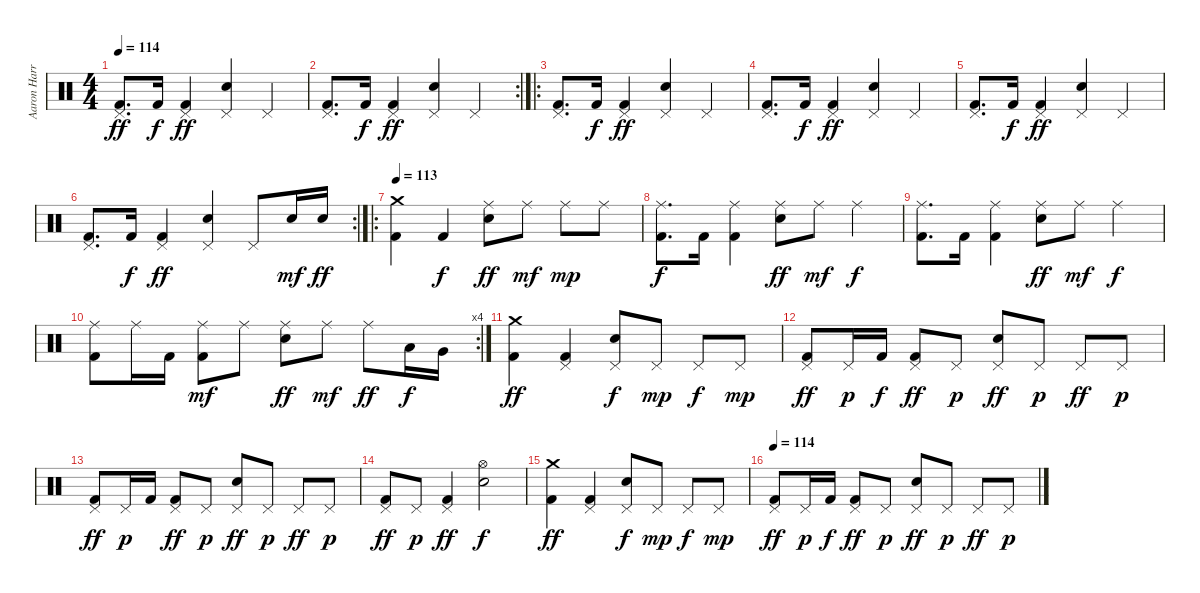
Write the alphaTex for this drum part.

\track ("Aaron Harris" "Aaron Harr") {instrument percussion}
\staff {score}
\articulation defaults
\ts (4 4)
\tempo 114
\clef neutral
\ks c
("Pedal Hi-Hat (hit)" "Kick (hit) 2").8{d dy ff} "Kick (hit) 2".16{dy f} ("Pedal Hi-Hat (hit)" "Kick (hit) 2").4{dy ff} ("Pedal Hi-Hat (hit)" "Electric Snare (hit)").4 "Pedal Hi-Hat (hit)".4 |
\rc 2
("Pedal Hi-Hat (hit)" "Kick (hit) 2").8{d} "Kick (hit) 2".16{dy f} ("Pedal Hi-Hat (hit)" "Kick (hit) 2").4{dy ff} ("Pedal Hi-Hat (hit)" "Electric Snare (hit)").4 "Pedal Hi-Hat (hit)".4 |
\ro
("Pedal Hi-Hat (hit)" "Kick (hit) 2").8{d} "Kick (hit) 2".16{dy f} ("Pedal Hi-Hat (hit)" "Kick (hit) 2").4{dy ff} ("Pedal Hi-Hat (hit)" "Electric Snare (hit)").4 "Pedal Hi-Hat (hit)".4 |
("Pedal Hi-Hat (hit)" "Kick (hit) 2").8{d} "Kick (hit) 2".16{dy f} ("Pedal Hi-Hat (hit)" "Kick (hit) 2").4{dy ff} ("Pedal Hi-Hat (hit)" "Electric Snare (hit)").4 "Pedal Hi-Hat (hit)".4 |
("Pedal Hi-Hat (hit)" "Kick (hit) 2").8{d} "Kick (hit) 2".16{dy f} ("Pedal Hi-Hat (hit)" "Kick (hit) 2").4{dy ff} ("Pedal Hi-Hat (hit)" "Electric Snare (hit)").4 "Pedal Hi-Hat (hit)".4 |
\rc 2
("Pedal Hi-Hat (hit)" "Kick (hit) 2").8{d} "Kick (hit) 2".16{dy f} ("Pedal Hi-Hat (hit)" "Kick (hit) 2").4{dy ff} ("Pedal Hi-Hat (hit)" "Electric Snare (hit)").4 "Pedal Hi-Hat (hit)".8 "Electric Snare (hit)".16{dy mf} "Electric Snare (hit)".16{dy ff} |
\ro
\tempo 113
("Crash medium (hit)" "Kick (hit) 2").4 "Kick (hit) 2".4{dy f} ("Ride (middle)" "Electric Snare (hit)").8{dy ff} "Ride (middle)".8{dy mf} "Ride (middle)".8{dy mp} "Ride (middle)".8 |
("Ride (middle)" "Kick (hit) 2").8{d dy f} "Kick (hit) 2".16 ("Ride (middle)" "Kick (hit) 2").4 ("Ride (middle)" "Electric Snare (hit)").8{dy ff} "Ride (middle)".8{dy mf} "Ride (middle)".4{dy f} |
("Ride (middle)" "Kick (hit) 2").8{d} "Kick (hit) 2".16 ("Ride (middle)" "Kick (hit) 2").4 ("Ride (middle)" "Electric Snare (hit)").8{dy ff} "Ride (middle)".8{dy mf} "Ride (middle)".4{dy f} |
\rc 4
("Ride (middle)" "Kick (hit) 2").8 "Ride (middle)".16 "Kick (hit) 2".16 ("Ride (middle)" "Kick (hit) 2").8{dy mf} "Ride (middle)".8 ("Ride (middle)" "Electric Snare (hit)").8{dy ff} "Ride (middle)".8{dy mf} "Ride (middle)".8{dy ff} "Low Tom (hit)".16{dy f} "Very Low Tom (hit)".16 |
("Crash medium (hit)" "Kick (hit) 2").4{dy ff} ("Pedal Hi-Hat (hit)" "Kick (hit) 2").4 ("Pedal Hi-Hat (hit)" "Electric Snare (hit)").8{dy f} "Pedal Hi-Hat (hit)".8{dy mp} "Pedal Hi-Hat (hit)".8{dy f} "Pedal Hi-Hat (hit)".8{dy mp} |
("Pedal Hi-Hat (hit)" "Kick (hit) 2").8{dy ff} "Pedal Hi-Hat (hit)".16{dy p} "Kick (hit) 2".16{dy f} ("Pedal Hi-Hat (hit)" "Kick (hit) 2").8{dy ff} "Pedal Hi-Hat (hit)".8{dy p} ("Pedal Hi-Hat (hit)" "Electric Snare (hit)").8{dy ff} "Pedal Hi-Hat (hit)".8{dy p} "Pedal Hi-Hat (hit)".8{dy ff} "Pedal Hi-Hat (hit)".8{dy p} |
("Pedal Hi-Hat (hit)" "Kick (hit) 2").8{dy ff} "Pedal Hi-Hat (hit)".16{dy p} "Kick (hit) 2".16 ("Pedal Hi-Hat (hit)" "Kick (hit) 2").8{dy ff} "Pedal Hi-Hat (hit)".8{dy p} ("Pedal Hi-Hat (hit)" "Electric Snare (hit)").8{dy ff} "Pedal Hi-Hat (hit)".8{dy p} "Pedal Hi-Hat (hit)".8{dy ff} "Pedal Hi-Hat (hit)".8{dy p} |
("Pedal Hi-Hat (hit)" "Kick (hit) 2").8{dy ff} "Pedal Hi-Hat (hit)".8{dy p} ("Pedal Hi-Hat (hit)" "Kick (hit) 2").4{dy ff} ("Hi-Hat (open)" "Electric Snare (hit)").2{dy f} |
("Crash medium (hit)" "Kick (hit) 2").4{dy ff} ("Pedal Hi-Hat (hit)" "Kick (hit) 2").4 ("Pedal Hi-Hat (hit)" "Electric Snare (hit)").8{dy f} "Pedal Hi-Hat (hit)".8{dy mp} "Pedal Hi-Hat (hit)".8{dy f} "Pedal Hi-Hat (hit)".8{dy mp} |
\tempo 114
("Pedal Hi-Hat (hit)" "Kick (hit) 2").8{dy ff} "Pedal Hi-Hat (hit)".16{dy p} "Kick (hit) 2".16{dy f} ("Pedal Hi-Hat (hit)" "Kick (hit) 2").8{dy ff} "Pedal Hi-Hat (hit)".8{dy p} ("Pedal Hi-Hat (hit)" "Electric Snare (hit)").8{dy ff} "Pedal Hi-Hat (hit)".8{dy p} "Pedal Hi-Hat (hit)".8{dy ff} "Pedal Hi-Hat (hit)".8{dy p}
